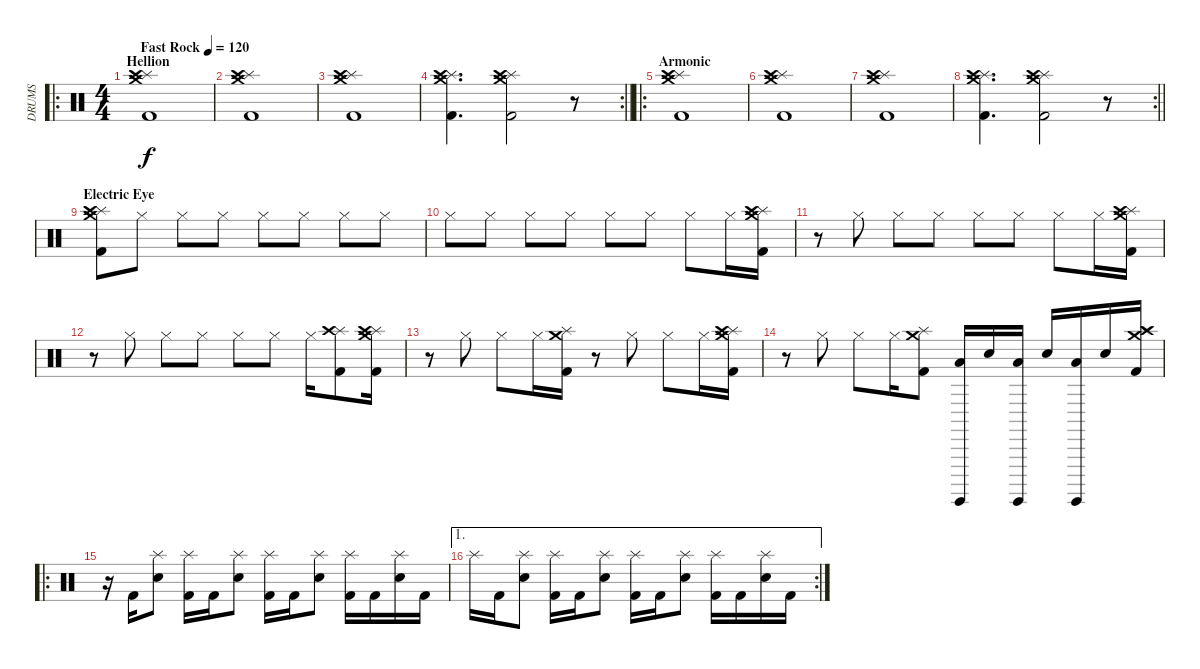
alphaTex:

\track ("DRUMS" "DRUMS") {instrument percussion}
\staff {score}
\articulation defaults
\ro
\ts (4 4)
\section ("" "Hellion")
\tempo (120 "Fast Rock")
\tempo 100
\tempo (120 "Fast Rock")
\clef neutral
\ks c
("Crash medium (hit)" "Splash (hit)" "Crash high (hit)" "Kick (hit) 2").1{dy f} |
("Crash medium (hit)" "Splash (hit)" "Crash high (hit)" "Kick (hit) 2").1 |
("Crash medium (hit)" "Splash (hit)" "Crash high (hit)" "Kick (hit) 2").1 |
\rc 2
\barLineRight lightlight
("Crash medium (hit)" "Splash (hit)" "Crash high (hit)" "Kick (hit) 2").4{d} ("Crash medium (hit)" "Splash (hit)" "Crash high (hit)" "Kick (hit) 2").2 r.8 |
\ro
\section ("" "Armonic")
("Crash medium (hit)" "Splash (hit)" "Crash high (hit)" "Kick (hit) 2").1 |
("Crash medium (hit)" "Splash (hit)" "Crash high (hit)" "Kick (hit) 2").1 |
("Crash medium (hit)" "Splash (hit)" "Crash high (hit)" "Kick (hit) 2").1 |
\rc 2
\barLineRight lightlight
("Crash medium (hit)" "Splash (hit)" "Crash high (hit)" "Kick (hit) 2").4{d} ("Crash medium (hit)" "Splash (hit)" "Crash high (hit)" "Kick (hit) 2").2 r.8 |
\section ("" "Electric Eye ")
("Crash medium (hit)" "Splash (hit)" "Crash high (hit)" "Kick (hit) 2").8 "Hi-Hat (closed)".8 "Hi-Hat (closed)".8 "Hi-Hat (closed)".8 "Hi-Hat (closed)".8 "Hi-Hat (closed)".8 "Hi-Hat (closed)".8 "Hi-Hat (closed)".8 |
"Hi-Hat (closed)".8 "Hi-Hat (closed)".8 "Hi-Hat (closed)".8 "Hi-Hat (closed)".8 "Hi-Hat (closed)".8 "Hi-Hat (closed)".8 "Hi-Hat (closed)".8 "Hi-Hat (closed)".16 ("Crash medium (hit)" "Splash (hit)" "Crash high (hit)" "Kick (hit) 2").16 |
r.8 "Hi-Hat (closed)".8 "Hi-Hat (closed)".8 "Hi-Hat (closed)".8 "Hi-Hat (closed)".8 "Hi-Hat (closed)".8 "Hi-Hat (closed)".8 "Hi-Hat (closed)".16 ("Crash medium (hit)" "Splash (hit)" "Crash high (hit)" "Kick (hit) 2").16 |
r.8 "Hi-Hat (closed)".8 "Hi-Hat (closed)".8 "Hi-Hat (closed)".8 "Hi-Hat (closed)".8 "Hi-Hat (closed)".8 "Hi-Hat (closed)".16 ("Splash (hit)" "Crash high (hit)" "Kick (hit) 2").8 ("Crash medium (hit)" "Splash (hit)" "Crash high (hit)" "Kick (hit) 2").16 |
r.8 "Hi-Hat (closed)".8 "Hi-Hat (closed)".8 "Hi-Hat (closed)".16 ("Crash medium (hit)" "Splash (hit)" "Kick (hit) 2").16 r.8 "Hi-Hat (closed)".8 "Hi-Hat (closed)".8 "Hi-Hat (closed)".16 ("Crash medium (hit)" "Splash (hit)" "Crash high (hit)" "Kick (hit) 2").16 |
r.8 "Hi-Hat (closed)".8 "Hi-Hat (closed)".8 "Hi-Hat (closed)".16 ("Crash medium (hit)" "Splash (hit)" "Kick (hit) 2").8 ("Surdo (hit)" "Low Floor Tom (hit)").16 "Electric Snare (hit)".16 ("Surdo (hit)" "Low Floor Tom (hit)").16 "Electric Snare (hit)".16 ("Surdo (hit)" "Low Floor Tom (hit)").16 "Electric Snare (hit)".16 ("Crash medium (hit)" "Splash (hit)" "Crash high (hit)" "Kick (hit) 2").16 |
\ro
r.16 "Kick (hit) 2".16 ("Splash (hit)" "Electric Snare (hit)").8 ("Splash (hit)" "Kick (hit) 2").16 "Kick (hit) 2".16 ("Splash (hit)" "Electric Snare (hit)").8 ("Splash (hit)" "Kick (hit) 2").16 "Kick (hit) 2".16 ("Splash (hit)" "Electric Snare (hit)").8 ("Splash (hit)" "Kick (hit) 2").16 "Kick (hit) 2".16 ("Splash (hit)" "Electric Snare (hit)").16 "Kick (hit) 2".16 |
\ae 1
\rc 2 "Splash (hit)".16 "Kick (hit) 2".16
("Splash (hit)" "Electric Snare (hit)").8 ("Splash (hit)" "Kick (hit) 2").16 "Kick (hit) 2".16 ("Splash (hit)" "Electric Snare (hit)").8 ("Splash (hit)" "Kick (hit) 2").16 "Kick (hit) 2".16 ("Splash (hit)" "Electric Snare (hit)").8 ("Splash (hit)" "Kick (hit) 2").16 "Kick (hit) 2".16 ("Splash (hit)" "Electric Snare (hit)").16 "Kick (hit) 2".16
